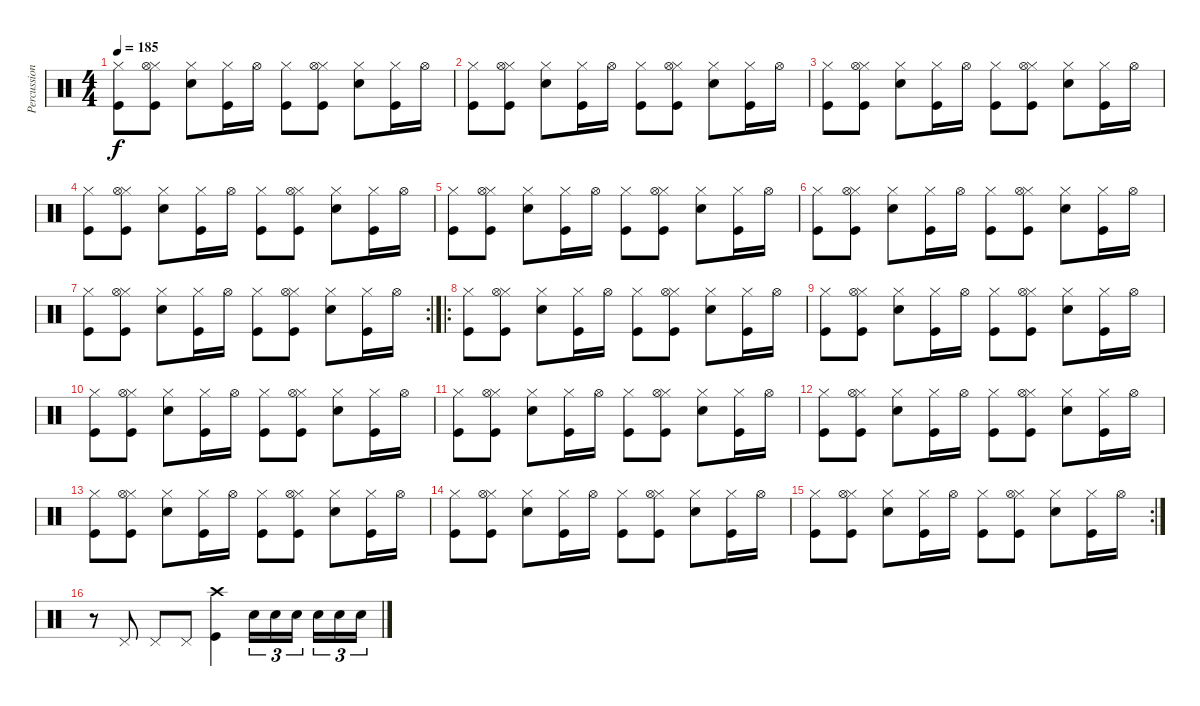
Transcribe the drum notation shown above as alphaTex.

\track ("Percussion" "Percussion") {instrument percussion}
\staff {score}
\articulation defaults
\ts (4 4)
\tempo 185
\clef neutral
\ks c
("Kick (hit)" "Hi-Hat (closed)").8{dy f} ("Kick (hit)" "Hi-Hat (closed)" "Hi-Hat (open)").8 ("Snare (hit) 2" "Hi-Hat (closed)").8 ("Kick (hit)" "Hi-Hat (closed)").16 "Hi-Hat (open)".16 ("Kick (hit)" "Hi-Hat (closed)").8 ("Kick (hit)" "Hi-Hat (closed)" "Hi-Hat (open)").8 ("Snare (hit) 2" "Hi-Hat (closed)").8 ("Kick (hit)" "Hi-Hat (closed)").16 "Hi-Hat (open)".16 |
("Kick (hit)" "Hi-Hat (closed)").8 ("Kick (hit)" "Hi-Hat (closed)" "Hi-Hat (open)").8 ("Snare (hit) 2" "Hi-Hat (closed)").8 ("Kick (hit)" "Hi-Hat (closed)").16 "Hi-Hat (open)".16 ("Kick (hit)" "Hi-Hat (closed)").8 ("Kick (hit)" "Hi-Hat (closed)" "Hi-Hat (open)").8 ("Snare (hit) 2" "Hi-Hat (closed)").8 ("Kick (hit)" "Hi-Hat (closed)").16 "Hi-Hat (open)".16 |
("Kick (hit)" "Hi-Hat (closed)").8 ("Kick (hit)" "Hi-Hat (closed)" "Hi-Hat (open)").8 ("Snare (hit) 2" "Hi-Hat (closed)").8 ("Kick (hit)" "Hi-Hat (closed)").16 "Hi-Hat (open)".16 ("Kick (hit)" "Hi-Hat (closed)").8 ("Kick (hit)" "Hi-Hat (closed)" "Hi-Hat (open)").8 ("Snare (hit) 2" "Hi-Hat (closed)").8 ("Kick (hit)" "Hi-Hat (closed)").16 "Hi-Hat (open)".16 |
("Kick (hit)" "Hi-Hat (closed)").8 ("Kick (hit)" "Hi-Hat (closed)" "Hi-Hat (open)").8 ("Snare (hit) 2" "Hi-Hat (closed)").8 ("Kick (hit)" "Hi-Hat (closed)").16 "Hi-Hat (open)".16 ("Kick (hit)" "Hi-Hat (closed)").8 ("Kick (hit)" "Hi-Hat (closed)" "Hi-Hat (open)").8 ("Snare (hit) 2" "Hi-Hat (closed)").8 ("Kick (hit)" "Hi-Hat (closed)").16 "Hi-Hat (open)".16 |
("Kick (hit)" "Hi-Hat (closed)").8 ("Kick (hit)" "Hi-Hat (closed)" "Hi-Hat (open)").8 ("Snare (hit) 2" "Hi-Hat (closed)").8 ("Kick (hit)" "Hi-Hat (closed)").16 "Hi-Hat (open)".16 ("Kick (hit)" "Hi-Hat (closed)").8 ("Kick (hit)" "Hi-Hat (closed)" "Hi-Hat (open)").8 ("Snare (hit) 2" "Hi-Hat (closed)").8 ("Kick (hit)" "Hi-Hat (closed)").16 "Hi-Hat (open)".16 |
("Kick (hit)" "Hi-Hat (closed)").8 ("Kick (hit)" "Hi-Hat (closed)" "Hi-Hat (open)").8 ("Snare (hit) 2" "Hi-Hat (closed)").8 ("Kick (hit)" "Hi-Hat (closed)").16 "Hi-Hat (open)".16 ("Kick (hit)" "Hi-Hat (closed)").8 ("Kick (hit)" "Hi-Hat (closed)" "Hi-Hat (open)").8 ("Snare (hit) 2" "Hi-Hat (closed)").8 ("Kick (hit)" "Hi-Hat (closed)").16 "Hi-Hat (open)".16 |
\rc 2
("Kick (hit)" "Hi-Hat (closed)").8 ("Kick (hit)" "Hi-Hat (closed)" "Hi-Hat (open)").8 ("Snare (hit) 2" "Hi-Hat (closed)").8 ("Kick (hit)" "Hi-Hat (closed)").16 "Hi-Hat (open)".16 ("Kick (hit)" "Hi-Hat (closed)").8 ("Kick (hit)" "Hi-Hat (closed)" "Hi-Hat (open)").8 ("Snare (hit) 2" "Hi-Hat (closed)").8 ("Kick (hit)" "Hi-Hat (closed)").16 "Hi-Hat (open)".16 |
\ro
("Kick (hit)" "Hi-Hat (closed)").8 ("Kick (hit)" "Hi-Hat (closed)" "Hi-Hat (open)").8 ("Snare (hit) 2" "Hi-Hat (closed)").8 ("Kick (hit)" "Hi-Hat (closed)").16 "Hi-Hat (open)".16 ("Kick (hit)" "Hi-Hat (closed)").8 ("Kick (hit)" "Hi-Hat (closed)" "Hi-Hat (open)").8 ("Snare (hit) 2" "Hi-Hat (closed)").8 ("Kick (hit)" "Hi-Hat (closed)").16 "Hi-Hat (open)".16 |
("Kick (hit)" "Hi-Hat (closed)").8 ("Kick (hit)" "Hi-Hat (closed)" "Hi-Hat (open)").8 ("Snare (hit) 2" "Hi-Hat (closed)").8 ("Kick (hit)" "Hi-Hat (closed)").16 "Hi-Hat (open)".16 ("Kick (hit)" "Hi-Hat (closed)").8 ("Kick (hit)" "Hi-Hat (closed)" "Hi-Hat (open)").8 ("Snare (hit) 2" "Hi-Hat (closed)").8 ("Kick (hit)" "Hi-Hat (closed)").16 "Hi-Hat (open)".16 |
("Kick (hit)" "Hi-Hat (closed)").8 ("Kick (hit)" "Hi-Hat (closed)" "Hi-Hat (open)").8 ("Snare (hit) 2" "Hi-Hat (closed)").8 ("Kick (hit)" "Hi-Hat (closed)").16 "Hi-Hat (open)".16 ("Kick (hit)" "Hi-Hat (closed)").8 ("Kick (hit)" "Hi-Hat (closed)" "Hi-Hat (open)").8 ("Snare (hit) 2" "Hi-Hat (closed)").8 ("Kick (hit)" "Hi-Hat (closed)").16 "Hi-Hat (open)".16 |
("Kick (hit)" "Hi-Hat (closed)").8 ("Kick (hit)" "Hi-Hat (closed)" "Hi-Hat (open)").8 ("Snare (hit) 2" "Hi-Hat (closed)").8 ("Kick (hit)" "Hi-Hat (closed)").16 "Hi-Hat (open)".16 ("Kick (hit)" "Hi-Hat (closed)").8 ("Kick (hit)" "Hi-Hat (closed)" "Hi-Hat (open)").8 ("Snare (hit) 2" "Hi-Hat (closed)").8 ("Kick (hit)" "Hi-Hat (closed)").16 "Hi-Hat (open)".16 |
("Kick (hit)" "Hi-Hat (closed)").8 ("Kick (hit)" "Hi-Hat (closed)" "Hi-Hat (open)").8 ("Snare (hit) 2" "Hi-Hat (closed)").8 ("Kick (hit)" "Hi-Hat (closed)").16 "Hi-Hat (open)".16 ("Kick (hit)" "Hi-Hat (closed)").8 ("Kick (hit)" "Hi-Hat (closed)" "Hi-Hat (open)").8 ("Snare (hit) 2" "Hi-Hat (closed)").8 ("Kick (hit)" "Hi-Hat (closed)").16 "Hi-Hat (open)".16 |
("Kick (hit)" "Hi-Hat (closed)").8 ("Kick (hit)" "Hi-Hat (closed)" "Hi-Hat (open)").8 ("Snare (hit) 2" "Hi-Hat (closed)").8 ("Kick (hit)" "Hi-Hat (closed)").16 "Hi-Hat (open)".16 ("Kick (hit)" "Hi-Hat (closed)").8 ("Kick (hit)" "Hi-Hat (closed)" "Hi-Hat (open)").8 ("Snare (hit) 2" "Hi-Hat (closed)").8 ("Kick (hit)" "Hi-Hat (closed)").16 "Hi-Hat (open)".16 |
("Kick (hit)" "Hi-Hat (closed)").8 ("Kick (hit)" "Hi-Hat (closed)" "Hi-Hat (open)").8 ("Snare (hit) 2" "Hi-Hat (closed)").8 ("Kick (hit)" "Hi-Hat (closed)").16 "Hi-Hat (open)".16 ("Kick (hit)" "Hi-Hat (closed)").8 ("Kick (hit)" "Hi-Hat (closed)" "Hi-Hat (open)").8 ("Snare (hit) 2" "Hi-Hat (closed)").8 ("Kick (hit)" "Hi-Hat (closed)").16 "Hi-Hat (open)".16 |
\rc 2
("Kick (hit)" "Hi-Hat (closed)").8 ("Kick (hit)" "Hi-Hat (closed)" "Hi-Hat (open)").8 ("Snare (hit) 2" "Hi-Hat (closed)").8 ("Kick (hit)" "Hi-Hat (closed)").16 "Hi-Hat (open)".16 ("Kick (hit)" "Hi-Hat (closed)").8 ("Kick (hit)" "Hi-Hat (closed)" "Hi-Hat (open)").8 ("Snare (hit) 2" "Hi-Hat (closed)").8 ("Kick (hit)" "Hi-Hat (closed)").16 "Hi-Hat (open)".16 |
r.8 "Pedal Hi-Hat (hit)".8 "Pedal Hi-Hat (hit)".8 "Pedal Hi-Hat (hit)".8 ("Crash high (hit)" "Kick (hit)").4 "Electric Snare (hit)".16{tu (3 2)} "Electric Snare (hit)".16{tu (3 2)} "Electric Snare (hit)".16{tu (3 2)} "Electric Snare (hit)".16{tu (3 2)} "Electric Snare (hit)".16{tu (3 2)} "Electric Snare (hit)".16{tu (3 2)}
